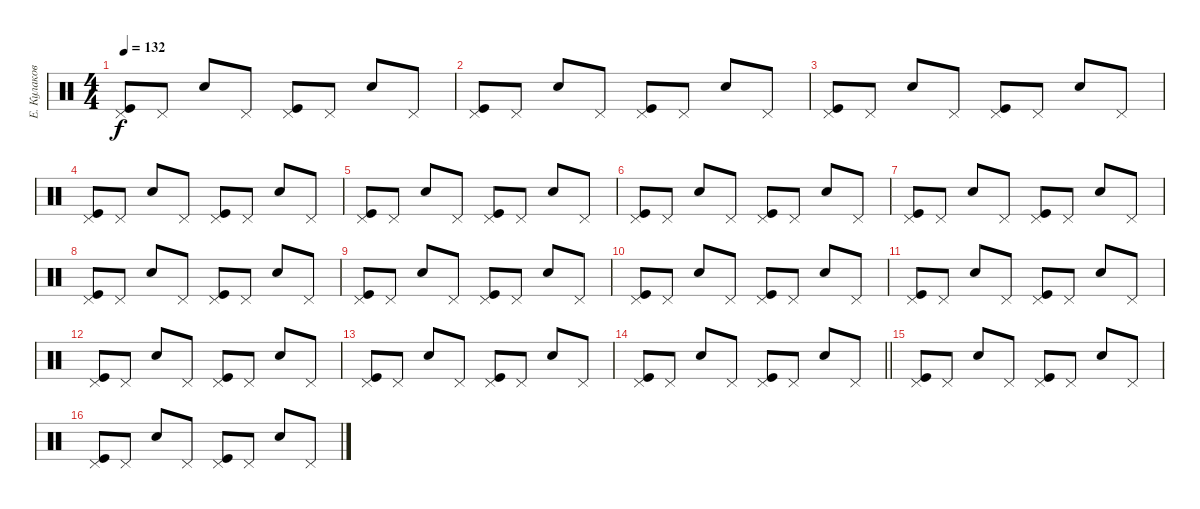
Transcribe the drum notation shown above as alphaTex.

\track ("Е. Кулаков" "Е. Кулаков") {instrument percussion}
\staff {score}
\articulation defaults
\ts (4 4)
\tempo 132
\clef neutral
\ks c
("Kick (hit)" "Pedal Hi-Hat (hit)").8{dy f} "Pedal Hi-Hat (hit)".8 "Snare (hit) 2".8 "Pedal Hi-Hat (hit)".8 ("Kick (hit)" "Pedal Hi-Hat (hit)").8 "Pedal Hi-Hat (hit)".8 "Snare (hit) 2".8 "Pedal Hi-Hat (hit)".8 |
("Kick (hit)" "Pedal Hi-Hat (hit)").8 "Pedal Hi-Hat (hit)".8 "Snare (hit) 2".8 "Pedal Hi-Hat (hit)".8 ("Kick (hit)" "Pedal Hi-Hat (hit)").8 "Pedal Hi-Hat (hit)".8 "Snare (hit) 2".8 "Pedal Hi-Hat (hit)".8 |
("Kick (hit)" "Pedal Hi-Hat (hit)").8 "Pedal Hi-Hat (hit)".8 "Snare (hit) 2".8 "Pedal Hi-Hat (hit)".8 ("Kick (hit)" "Pedal Hi-Hat (hit)").8 "Pedal Hi-Hat (hit)".8 "Snare (hit) 2".8 "Pedal Hi-Hat (hit)".8 |
("Kick (hit)" "Pedal Hi-Hat (hit)").8 "Pedal Hi-Hat (hit)".8 "Snare (hit) 2".8 "Pedal Hi-Hat (hit)".8 ("Kick (hit)" "Pedal Hi-Hat (hit)").8 "Pedal Hi-Hat (hit)".8 "Snare (hit) 2".8 "Pedal Hi-Hat (hit)".8 |
("Kick (hit)" "Pedal Hi-Hat (hit)").8 "Pedal Hi-Hat (hit)".8 "Snare (hit) 2".8 "Pedal Hi-Hat (hit)".8 ("Kick (hit)" "Pedal Hi-Hat (hit)").8 "Pedal Hi-Hat (hit)".8 "Snare (hit) 2".8 "Pedal Hi-Hat (hit)".8 |
("Kick (hit)" "Pedal Hi-Hat (hit)").8 "Pedal Hi-Hat (hit)".8 "Snare (hit) 2".8 "Pedal Hi-Hat (hit)".8 ("Kick (hit)" "Pedal Hi-Hat (hit)").8 "Pedal Hi-Hat (hit)".8 "Snare (hit) 2".8 "Pedal Hi-Hat (hit)".8 |
("Kick (hit)" "Pedal Hi-Hat (hit)").8 "Pedal Hi-Hat (hit)".8 "Snare (hit) 2".8 "Pedal Hi-Hat (hit)".8 ("Kick (hit)" "Pedal Hi-Hat (hit)").8 "Pedal Hi-Hat (hit)".8 "Snare (hit) 2".8 "Pedal Hi-Hat (hit)".8 |
("Kick (hit)" "Pedal Hi-Hat (hit)").8 "Pedal Hi-Hat (hit)".8 "Snare (hit) 2".8 "Pedal Hi-Hat (hit)".8 ("Kick (hit)" "Pedal Hi-Hat (hit)").8 "Pedal Hi-Hat (hit)".8 "Snare (hit) 2".8 "Pedal Hi-Hat (hit)".8 |
("Kick (hit)" "Pedal Hi-Hat (hit)").8 "Pedal Hi-Hat (hit)".8 "Snare (hit) 2".8 "Pedal Hi-Hat (hit)".8 ("Kick (hit)" "Pedal Hi-Hat (hit)").8 "Pedal Hi-Hat (hit)".8 "Snare (hit) 2".8 "Pedal Hi-Hat (hit)".8 |
("Kick (hit)" "Pedal Hi-Hat (hit)").8 "Pedal Hi-Hat (hit)".8 "Snare (hit) 2".8 "Pedal Hi-Hat (hit)".8 ("Kick (hit)" "Pedal Hi-Hat (hit)").8 "Pedal Hi-Hat (hit)".8 "Snare (hit) 2".8 "Pedal Hi-Hat (hit)".8 |
("Kick (hit)" "Pedal Hi-Hat (hit)").8 "Pedal Hi-Hat (hit)".8 "Snare (hit) 2".8 "Pedal Hi-Hat (hit)".8 ("Kick (hit)" "Pedal Hi-Hat (hit)").8 "Pedal Hi-Hat (hit)".8 "Snare (hit) 2".8 "Pedal Hi-Hat (hit)".8 |
("Kick (hit)" "Pedal Hi-Hat (hit)").8 "Pedal Hi-Hat (hit)".8 "Snare (hit) 2".8 "Pedal Hi-Hat (hit)".8 ("Kick (hit)" "Pedal Hi-Hat (hit)").8 "Pedal Hi-Hat (hit)".8 "Snare (hit) 2".8 "Pedal Hi-Hat (hit)".8 |
("Kick (hit)" "Pedal Hi-Hat (hit)").8 "Pedal Hi-Hat (hit)".8 "Snare (hit) 2".8 "Pedal Hi-Hat (hit)".8 ("Kick (hit)" "Pedal Hi-Hat (hit)").8 "Pedal Hi-Hat (hit)".8 "Snare (hit) 2".8 "Pedal Hi-Hat (hit)".8 |
\barLineRight lightlight
("Kick (hit)" "Pedal Hi-Hat (hit)").8 "Pedal Hi-Hat (hit)".8 "Snare (hit) 2".8 "Pedal Hi-Hat (hit)".8 ("Kick (hit)" "Pedal Hi-Hat (hit)").8 "Pedal Hi-Hat (hit)".8 "Snare (hit) 2".8 "Pedal Hi-Hat (hit)".8 |
\section ("" "")
("Kick (hit)" "Pedal Hi-Hat (hit)").8 "Pedal Hi-Hat (hit)".8 "Snare (hit) 2".8 "Pedal Hi-Hat (hit)".8 ("Kick (hit)" "Pedal Hi-Hat (hit)").8 "Pedal Hi-Hat (hit)".8 "Snare (hit) 2".8 "Pedal Hi-Hat (hit)".8 |
("Kick (hit)" "Pedal Hi-Hat (hit)").8 "Pedal Hi-Hat (hit)".8 "Snare (hit) 2".8 "Pedal Hi-Hat (hit)".8 ("Kick (hit)" "Pedal Hi-Hat (hit)").8 "Pedal Hi-Hat (hit)".8 "Snare (hit) 2".8 "Pedal Hi-Hat (hit)".8
